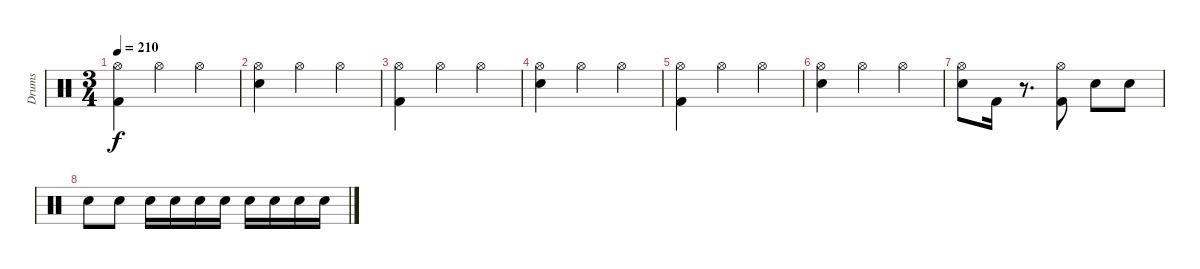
\track ("Drums" "Drums") {instrument percussion}
\staff {score}
\articulation defaults
\ts (3 4)
\tempo 210
\clef neutral
\ks c
("Hi-Hat (open)" "Kick (hit) 2").4{dy f} "Hi-Hat (open)".4 "Hi-Hat (open)".4 |
("Hi-Hat (open)" "Snare (hit) 2").4 "Hi-Hat (open)".4 "Hi-Hat (open)".4 |
("Hi-Hat (open)" "Kick (hit) 2").4 "Hi-Hat (open)".4 "Hi-Hat (open)".4 |
("Hi-Hat (open)" "Snare (hit) 2").4 "Hi-Hat (open)".4 "Hi-Hat (open)".4 |
("Hi-Hat (open)" "Kick (hit) 2").4 "Hi-Hat (open)".4 "Hi-Hat (open)".4 |
("Hi-Hat (open)" "Snare (hit) 2").4 "Hi-Hat (open)".4 "Hi-Hat (open)".4 |
("Hi-Hat (open)" "Snare (hit) 2").8 "Kick (hit) 2".16 r.8{d} ("Hi-Hat (open)" "Kick (hit) 2").8 "Snare (hit) 2".8 "Snare (hit) 2".8 |
"Snare (hit) 2".8 "Snare (hit) 2".8 "Snare (hit) 2".16 "Snare (hit) 2".16 "Snare (hit) 2".16 "Snare (hit) 2".16 "Snare (hit) 2".16 "Snare (hit) 2".16 "Snare (hit) 2".16 "Snare (hit) 2".16
